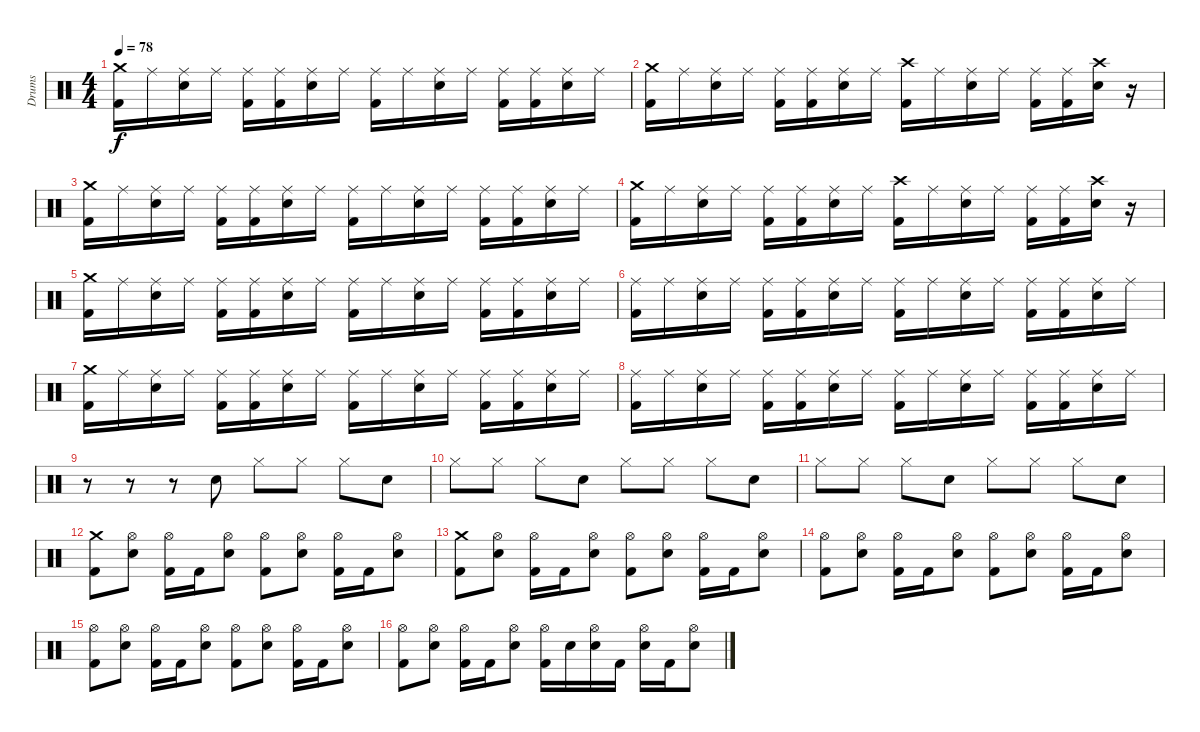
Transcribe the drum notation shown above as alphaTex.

\track ("Drums" "Drums") {instrument percussion}
\staff {score}
\articulation defaults
\ts (4 4)
\tempo 78
\clef neutral
\ks c
("Crash medium (hit)" "Kick (hit) 2").16{dy f} "Ride (middle)".16 ("Ride (middle)" "Snare (hit) 2").16 "Ride (middle)".16 ("Ride (middle)" "Kick (hit) 2").16 ("Ride (middle)" "Kick (hit) 2").16 ("Ride (middle)" "Snare (hit) 2").16 "Ride (middle)".16 ("Ride (middle)" "Kick (hit) 2").16 "Ride (middle)".16 ("Ride (middle)" "Snare (hit) 2").16 "Ride (middle)".16 ("Ride (middle)" "Kick (hit) 2").16 ("Ride (middle)" "Kick (hit) 2").16 ("Ride (middle)" "Snare (hit) 2").16 "Ride (middle)".16 |
("Crash medium (hit)" "Kick (hit) 2").16 "Ride (middle)".16 ("Ride (middle)" "Snare (hit) 2").16 "Ride (middle)".16 ("Ride (middle)" "Kick (hit) 2").16 ("Ride (middle)" "Kick (hit) 2").16 ("Ride (middle)" "Snare (hit) 2").16 "Ride (middle)".16 ("Crash high (hit)" "Kick (hit) 2").16 "Ride (middle)".16 ("Ride (middle)" "Snare (hit) 2").16 "Ride (middle)".16 ("Ride (middle)" "Kick (hit) 2").16 ("Ride (middle)" "Kick (hit) 2").16 ("Crash high (hit)" "Snare (hit) 2").16 r.16 |
("Crash medium (hit)" "Kick (hit) 2").16 "Ride (middle)".16 ("Ride (middle)" "Snare (hit) 2").16 "Ride (middle)".16 ("Ride (middle)" "Kick (hit) 2").16 ("Ride (middle)" "Kick (hit) 2").16 ("Ride (middle)" "Snare (hit) 2").16 "Ride (middle)".16 ("Ride (middle)" "Kick (hit) 2").16 "Ride (middle)".16 ("Ride (middle)" "Snare (hit) 2").16 "Ride (middle)".16 ("Ride (middle)" "Kick (hit) 2").16 ("Ride (middle)" "Kick (hit) 2").16 ("Ride (middle)" "Snare (hit) 2").16 "Ride (middle)".16 |
("Crash medium (hit)" "Kick (hit) 2").16 "Ride (middle)".16 ("Ride (middle)" "Snare (hit) 2").16 "Ride (middle)".16 ("Ride (middle)" "Kick (hit) 2").16 ("Ride (middle)" "Kick (hit) 2").16 ("Ride (middle)" "Snare (hit) 2").16 "Ride (middle)".16 ("Crash high (hit)" "Kick (hit) 2").16 "Ride (middle)".16 ("Ride (middle)" "Snare (hit) 2").16 "Ride (middle)".16 ("Ride (middle)" "Kick (hit) 2").16 ("Ride (middle)" "Kick (hit) 2").16 ("Crash high (hit)" "Snare (hit) 2").16 r.16 |
("Crash medium (hit)" "Kick (hit) 2").16 "Ride (middle)".16 ("Ride (middle)" "Snare (hit) 2").16 "Ride (middle)".16 ("Ride (middle)" "Kick (hit) 2").16 ("Ride (middle)" "Kick (hit) 2").16 ("Ride (middle)" "Snare (hit) 2").16 "Ride (middle)".16 ("Ride (middle)" "Kick (hit) 2").16 "Ride (middle)".16 ("Ride (middle)" "Snare (hit) 2").16 "Ride (middle)".16 ("Ride (middle)" "Kick (hit) 2").16 ("Ride (middle)" "Kick (hit) 2").16 ("Ride (middle)" "Snare (hit) 2").16 "Ride (middle)".16 |
("Ride (middle)" "Kick (hit) 2").16 "Ride (middle)".16 ("Ride (middle)" "Snare (hit) 2").16 "Ride (middle)".16 ("Ride (middle)" "Kick (hit) 2").16 ("Ride (middle)" "Kick (hit) 2").16 ("Ride (middle)" "Snare (hit) 2").16 "Ride (middle)".16 ("Ride (middle)" "Kick (hit) 2").16 "Ride (middle)".16 ("Ride (middle)" "Snare (hit) 2").16 "Ride (middle)".16 ("Ride (middle)" "Kick (hit) 2").16 ("Ride (middle)" "Kick (hit) 2").16 ("Ride (middle)" "Snare (hit) 2").16 "Ride (middle)".16 |
("Crash medium (hit)" "Kick (hit) 2").16 "Ride (middle)".16 ("Ride (middle)" "Snare (hit) 2").16 "Ride (middle)".16 ("Ride (middle)" "Kick (hit) 2").16 ("Ride (middle)" "Kick (hit) 2").16 ("Ride (middle)" "Snare (hit) 2").16 "Ride (middle)".16 ("Ride (middle)" "Kick (hit) 2").16 "Ride (middle)".16 ("Ride (middle)" "Snare (hit) 2").16 "Ride (middle)".16 ("Ride (middle)" "Kick (hit) 2").16 ("Ride (middle)" "Kick (hit) 2").16 ("Ride (middle)" "Snare (hit) 2").16 "Ride (middle)".16 |
("Ride (middle)" "Kick (hit) 2").16 "Ride (middle)".16 ("Ride (middle)" "Snare (hit) 2").16 "Ride (middle)".16 ("Ride (middle)" "Kick (hit) 2").16 ("Ride (middle)" "Kick (hit) 2").16 ("Ride (middle)" "Snare (hit) 2").16 "Ride (middle)".16 ("Ride (middle)" "Kick (hit) 2").16 "Ride (middle)".16 ("Ride (middle)" "Snare (hit) 2").16 "Ride (middle)".16 ("Ride (middle)" "Kick (hit) 2").16 ("Ride (middle)" "Kick (hit) 2").16 ("Ride (middle)" "Snare (hit) 2").16 "Ride (middle)".16 |
r.8 r.8 r.8 "Snare (hit) 2".8 "Hi-Hat (closed)".8 "Hi-Hat (closed)".8 "Hi-Hat (closed)".8 "Snare (hit) 2".8 |
"Hi-Hat (closed)".8 "Hi-Hat (closed)".8 "Hi-Hat (closed)".8 "Snare (hit) 2".8 "Hi-Hat (closed)".8 "Hi-Hat (closed)".8 "Hi-Hat (closed)".8 "Snare (hit) 2".8 |
"Hi-Hat (closed)".8 "Hi-Hat (closed)".8 "Hi-Hat (closed)".8 "Snare (hit) 2".8 "Hi-Hat (closed)".8 "Hi-Hat (closed)".8 "Hi-Hat (closed)".8 "Snare (hit) 2".8 |
("Crash medium (hit)" "Kick (hit) 2").8 ("Hi-Hat (open)" "Snare (hit) 2").8 ("Hi-Hat (open)" "Kick (hit) 2").16 "Kick (hit) 2".16 ("Hi-Hat (open)" "Snare (hit) 2").8 ("Hi-Hat (open)" "Kick (hit) 2").8 ("Hi-Hat (open)" "Snare (hit) 2").8 ("Hi-Hat (open)" "Kick (hit) 2").16 "Kick (hit) 2".16 ("Hi-Hat (open)" "Snare (hit) 2").8 |
("Crash medium (hit)" "Kick (hit) 2").8 ("Hi-Hat (open)" "Snare (hit) 2").8 ("Hi-Hat (open)" "Kick (hit) 2").16 "Kick (hit) 2".16 ("Hi-Hat (open)" "Snare (hit) 2").8 ("Hi-Hat (open)" "Kick (hit) 2").8 ("Hi-Hat (open)" "Snare (hit) 2").8 ("Hi-Hat (open)" "Kick (hit) 2").16 "Kick (hit) 2".16 ("Hi-Hat (open)" "Snare (hit) 2").8 |
("Hi-Hat (open)" "Kick (hit) 2").8 ("Hi-Hat (open)" "Snare (hit) 2").8 ("Hi-Hat (open)" "Kick (hit) 2").16 "Kick (hit) 2".16 ("Hi-Hat (open)" "Snare (hit) 2").8 ("Hi-Hat (open)" "Kick (hit) 2").8 ("Hi-Hat (open)" "Snare (hit) 2").8 ("Hi-Hat (open)" "Kick (hit) 2").16 "Kick (hit) 2".16 ("Hi-Hat (open)" "Snare (hit) 2").8 |
("Hi-Hat (open)" "Kick (hit) 2").8 ("Hi-Hat (open)" "Snare (hit) 2").8 ("Hi-Hat (open)" "Kick (hit) 2").16 "Kick (hit) 2".16 ("Hi-Hat (open)" "Snare (hit) 2").8 ("Hi-Hat (open)" "Kick (hit) 2").8 ("Hi-Hat (open)" "Snare (hit) 2").8 ("Hi-Hat (open)" "Kick (hit) 2").16 "Kick (hit) 2".16 ("Hi-Hat (open)" "Snare (hit) 2").8 |
("Hi-Hat (open)" "Kick (hit) 2").8 ("Hi-Hat (open)" "Snare (hit) 2").8 ("Hi-Hat (open)" "Kick (hit) 2").16 "Kick (hit) 2".16 ("Hi-Hat (open)" "Snare (hit) 2").8 ("Hi-Hat (open)" "Kick (hit) 2").16 "Snare (hit) 2".16 ("Hi-Hat (open)" "Snare (hit) 2").16 "Kick (hit) 2".16 ("Hi-Hat (open)" "Snare (hit) 2").16 "Kick (hit) 2".16 ("Hi-Hat (open)" "Snare (hit) 2").8
